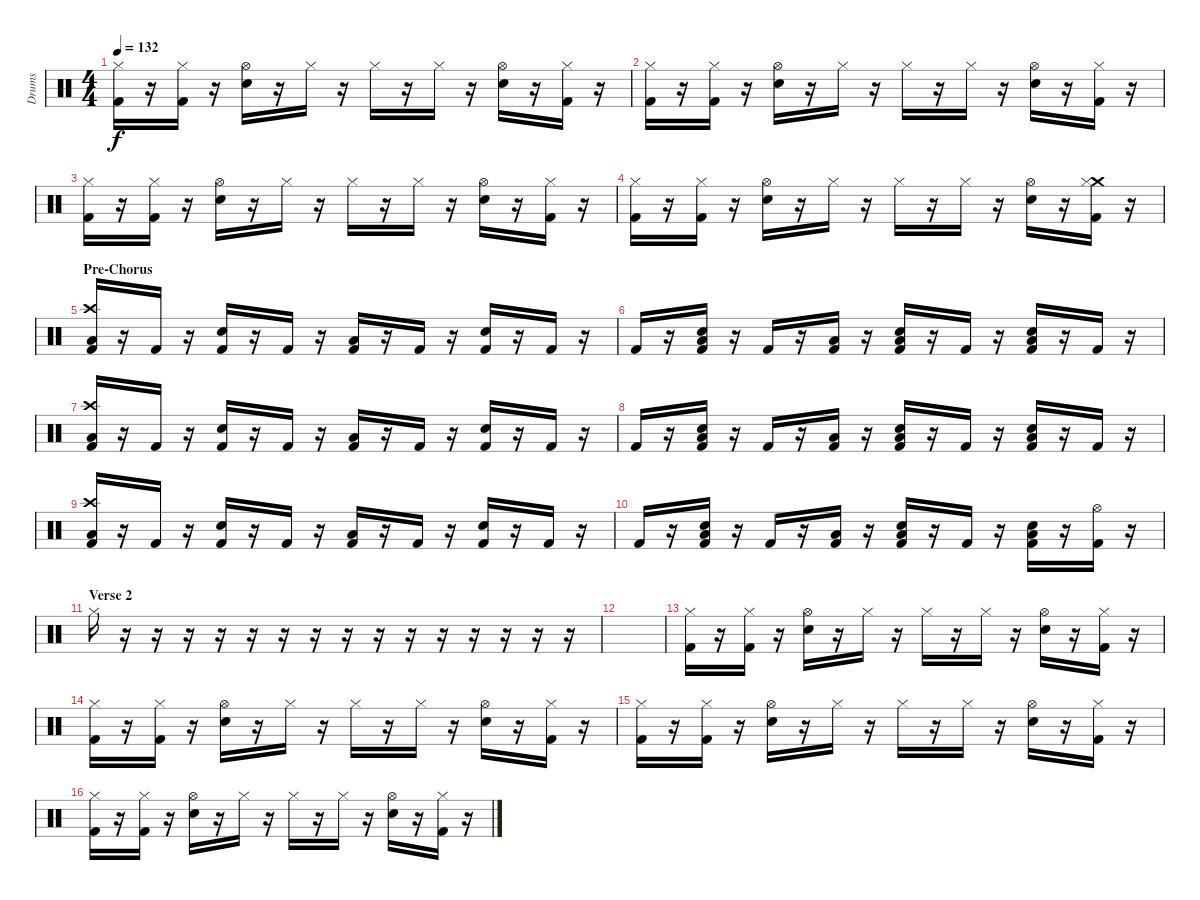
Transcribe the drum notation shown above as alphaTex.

\track ("Drums" "Drums") {instrument percussion}
\staff {score}
\articulation defaults
\ts (4 4)
\tempo 132
\clef neutral
\ks c
("Hi-Hat (closed)" "Kick (hit) 2").16{dy f} r.16 ("Hi-Hat (closed)" "Kick (hit) 2").16 r.16 ("Hi-Hat (open)" "Snare (hit) 2").16 r.16 "Hi-Hat (closed)".16 r.16 "Hi-Hat (closed)".16 r.16 "Hi-Hat (closed)".16 r.16 ("Hi-Hat (open)" "Snare (hit) 2").16 r.16 ("Hi-Hat (closed)" "Kick (hit) 2").16 r.16 |
("Hi-Hat (closed)" "Kick (hit) 2").16 r.16 ("Hi-Hat (closed)" "Kick (hit) 2").16 r.16 ("Hi-Hat (open)" "Snare (hit) 2").16 r.16 "Hi-Hat (closed)".16 r.16 "Hi-Hat (closed)".16 r.16 "Hi-Hat (closed)".16 r.16 ("Hi-Hat (open)" "Snare (hit) 2").16 r.16 ("Hi-Hat (closed)" "Kick (hit) 2").16 r.16 |
("Hi-Hat (closed)" "Kick (hit) 2").16 r.16 ("Hi-Hat (closed)" "Kick (hit) 2").16 r.16 ("Hi-Hat (open)" "Snare (hit) 2").16 r.16 "Hi-Hat (closed)".16 r.16 "Hi-Hat (closed)".16 r.16 "Hi-Hat (closed)".16 r.16 ("Hi-Hat (open)" "Snare (hit) 2").16 r.16 ("Hi-Hat (closed)" "Kick (hit) 2").16 r.16 |
("Hi-Hat (closed)" "Kick (hit) 2").16 r.16 ("Hi-Hat (closed)" "Kick (hit) 2").16 r.16 ("Hi-Hat (open)" "Snare (hit) 2").16 r.16 "Hi-Hat (closed)".16 r.16 "Hi-Hat (closed)".16 r.16 "Hi-Hat (closed)".16 r.16 ("Hi-Hat (open)" "Snare (hit) 2").16 r.16 ("Crash medium (hit)" "Hi-Hat (closed)" "Kick (hit) 2").16 r.16 |
\section ("" "Pre-Chorus")
("Crash high (hit)" "Low Tom (hit)" "Kick (hit) 2").16 r.16 "Kick (hit) 2".16 r.16 ("Snare (hit) 2" "Kick (hit) 2").16 r.16 "Kick (hit) 2".16 r.16 ("Low Tom (hit)" "Kick (hit) 2").16 r.16 "Kick (hit) 2".16 r.16 ("Snare (hit) 2" "Kick (hit) 2").16 r.16 "Kick (hit) 2".16 r.16 |
"Kick (hit) 2".16 r.16 ("Low Tom (hit)" "Snare (hit) 2" "Kick (hit) 2").16 r.16 "Kick (hit) 2".16 r.16 ("Low Tom (hit)" "Kick (hit) 2").16 r.16 ("Low Tom (hit)" "Snare (hit) 2" "Kick (hit) 2").16 r.16 "Kick (hit) 2".16 r.16 ("Low Tom (hit)" "Snare (hit) 2" "Kick (hit) 2").16 r.16 "Kick (hit) 2".16 r.16 |
("Crash high (hit)" "Low Tom (hit)" "Kick (hit) 2").16 r.16 "Kick (hit) 2".16 r.16 ("Snare (hit) 2" "Kick (hit) 2").16 r.16 "Kick (hit) 2".16 r.16 ("Low Tom (hit)" "Kick (hit) 2").16 r.16 "Kick (hit) 2".16 r.16 ("Snare (hit) 2" "Kick (hit) 2").16 r.16 "Kick (hit) 2".16 r.16 |
"Kick (hit) 2".16 r.16 ("Low Tom (hit)" "Snare (hit) 2" "Kick (hit) 2").16 r.16 "Kick (hit) 2".16 r.16 ("Low Tom (hit)" "Kick (hit) 2").16 r.16 ("Low Tom (hit)" "Snare (hit) 2" "Kick (hit) 2").16 r.16 "Kick (hit) 2".16 r.16 ("Low Tom (hit)" "Snare (hit) 2" "Kick (hit) 2").16 r.16 "Kick (hit) 2".16 r.16 |
("Crash high (hit)" "Low Tom (hit)" "Kick (hit) 2").16 r.16 "Kick (hit) 2".16 r.16 ("Snare (hit) 2" "Kick (hit) 2").16 r.16 "Kick (hit) 2".16 r.16 ("Low Tom (hit)" "Kick (hit) 2").16 r.16 "Kick (hit) 2".16 r.16 ("Snare (hit) 2" "Kick (hit) 2").16 r.16 "Kick (hit) 2".16 r.16 |
"Kick (hit) 2".16 r.16 ("Low Tom (hit)" "Snare (hit) 2" "Kick (hit) 2").16 r.16 "Kick (hit) 2".16 r.16 ("Low Tom (hit)" "Kick (hit) 2").16 r.16 ("Low Tom (hit)" "Snare (hit) 2" "Kick (hit) 2").16 r.16 "Kick (hit) 2".16 r.16 ("Low Tom (hit)" "Snare (hit) 2" "Kick (hit) 2").16 r.16 ("Hi-Hat (open)" "Kick (hit) 2").16 r.16 |
\section ("" "Verse 2")
"Hi-Hat (closed)".16 r.16 r.16 r.16 r.16 r.16 r.16 r.16 r.16 r.16 r.16 r.16 r.16 r.16 r.16 r.16 |
|
("Hi-Hat (closed)" "Kick (hit) 2").16 r.16 ("Hi-Hat (closed)" "Kick (hit) 2").16 r.16 ("Hi-Hat (open)" "Snare (hit) 2").16 r.16 "Hi-Hat (closed)".16 r.16 "Hi-Hat (closed)".16 r.16 "Hi-Hat (closed)".16 r.16 ("Hi-Hat (open)" "Snare (hit) 2").16 r.16 ("Hi-Hat (closed)" "Kick (hit) 2").16 r.16 |
("Hi-Hat (closed)" "Kick (hit) 2").16 r.16 ("Hi-Hat (closed)" "Kick (hit) 2").16 r.16 ("Hi-Hat (open)" "Snare (hit) 2").16 r.16 "Hi-Hat (closed)".16 r.16 "Hi-Hat (closed)".16 r.16 "Hi-Hat (closed)".16 r.16 ("Hi-Hat (open)" "Snare (hit) 2").16 r.16 ("Hi-Hat (closed)" "Kick (hit) 2").16 r.16 |
("Hi-Hat (closed)" "Kick (hit) 2").16 r.16 ("Hi-Hat (closed)" "Kick (hit) 2").16 r.16 ("Hi-Hat (open)" "Snare (hit) 2").16 r.16 "Hi-Hat (closed)".16 r.16 "Hi-Hat (closed)".16 r.16 "Hi-Hat (closed)".16 r.16 ("Hi-Hat (open)" "Snare (hit) 2").16 r.16 ("Hi-Hat (closed)" "Kick (hit) 2").16 r.16 |
("Hi-Hat (closed)" "Kick (hit) 2").16 r.16 ("Hi-Hat (closed)" "Kick (hit) 2").16 r.16 ("Hi-Hat (open)" "Snare (hit) 2").16 r.16 "Hi-Hat (closed)".16 r.16 "Hi-Hat (closed)".16 r.16 "Hi-Hat (closed)".16 r.16 ("Hi-Hat (open)" "Snare (hit) 2").16 r.16 ("Hi-Hat (closed)" "Kick (hit) 2").16 r.16
